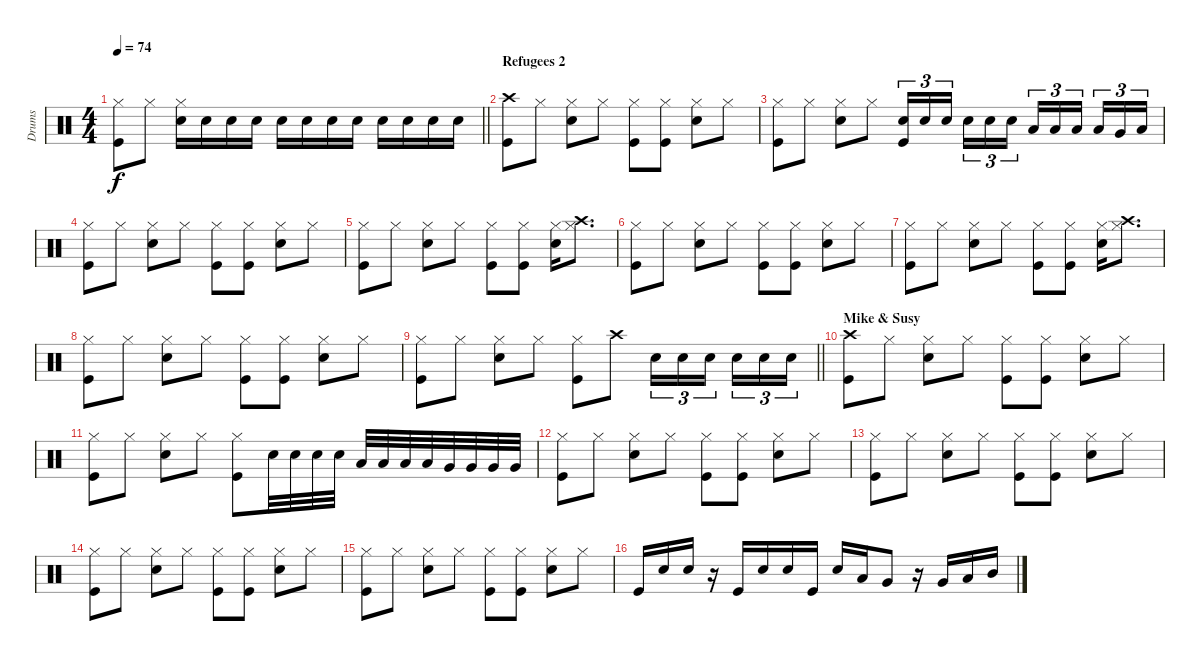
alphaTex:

\track ("Drums" "Drums") {instrument percussion}
\staff {score}
\articulation defaults
\ts (4 4)
\tempo 74
\clef neutral
\barLineRight lightlight
\ks c
("Kick (hit)" "Hi-Hat (closed)").8{dy f} "Hi-Hat (closed)".8 ("Snare (hit) 2" "Hi-Hat (closed)").16 "Snare (hit) 2".16 "Snare (hit) 2".16 "Snare (hit) 2".16 "Snare (hit) 2".16 "Snare (hit) 2".16 "Snare (hit) 2".16 "Snare (hit) 2".16 "Snare (hit) 2".16 "Snare (hit) 2".16 "Snare (hit) 2".16 "Snare (hit) 2".16 |
\section ("" "Refugees 2")
("Crash high (hit)" "Kick (hit)").8 "Hi-Hat (closed)".8 ("Snare (hit) 2" "Hi-Hat (closed)").8 "Hi-Hat (closed)".8 ("Hi-Hat (closed)" "Kick (hit)").8 ("Hi-Hat (closed)" "Kick (hit)").8 ("Hi-Hat (closed)" "Snare (hit) 2").8 "Hi-Hat (closed)".8 |
("Hi-Hat (closed)" "Kick (hit)").8 "Hi-Hat (closed)".8 ("Snare (hit) 2" "Hi-Hat (closed)").8 "Hi-Hat (closed)".8 ("Snare (hit) 2" "Kick (hit)").16{tu (3 2)} "Snare (hit) 2".16{tu (3 2)} "Snare (hit) 2".16{tu (3 2) beam splitsecondary} "Snare (hit) 2".16{tu (3 2)} "Snare (hit) 2".16{tu (3 2)} "Snare (hit) 2".16{tu (3 2)} "Low Tom (hit)".16{tu (3 2)} "Low Tom (hit)".16{tu (3 2)} "Low Tom (hit)".16{tu (3 2) beam splitsecondary} "Low Tom (hit)".16{tu (3 2)} "Very Low Tom (hit)".16{tu (3 2)} "Low Tom (hit)".16{tu (3 2)} |
("Kick (hit)" "Hi-Hat (closed)").8 "Hi-Hat (closed)".8 ("Snare (hit) 2" "Hi-Hat (closed)").8 "Hi-Hat (closed)".8 ("Kick (hit)" "Hi-Hat (closed)").8 ("Kick (hit)" "Hi-Hat (closed)").8 ("Snare (hit) 2" "Hi-Hat (closed)").8 "Hi-Hat (closed)".8 |
("Kick (hit)" "Hi-Hat (closed)").8 "Hi-Hat (closed)".8 ("Snare (hit) 2" "Hi-Hat (closed)").8 "Hi-Hat (closed)".8 ("Kick (hit)" "Hi-Hat (closed)").8 ("Kick (hit)" "Hi-Hat (closed)").8 ("Snare (hit) 2" "Hi-Hat (closed)").16 ("Hi-Hat (closed)" "Crash high (hit)").8{d} |
("Kick (hit)" "Hi-Hat (closed)").8 "Hi-Hat (closed)".8 ("Snare (hit) 2" "Hi-Hat (closed)").8 "Hi-Hat (closed)".8 ("Kick (hit)" "Hi-Hat (closed)").8 ("Kick (hit)" "Hi-Hat (closed)").8 ("Snare (hit) 2" "Hi-Hat (closed)").8 "Hi-Hat (closed)".8 |
("Kick (hit)" "Hi-Hat (closed)").8 "Hi-Hat (closed)".8 ("Snare (hit) 2" "Hi-Hat (closed)").8 "Hi-Hat (closed)".8 ("Kick (hit)" "Hi-Hat (closed)").8 ("Kick (hit)" "Hi-Hat (closed)").8 ("Snare (hit) 2" "Hi-Hat (closed)").16 ("Hi-Hat (closed)" "Crash high (hit)").8{d} |
("Kick (hit)" "Hi-Hat (closed)").8 "Hi-Hat (closed)".8 ("Snare (hit) 2" "Hi-Hat (closed)").8 "Hi-Hat (closed)".8 ("Kick (hit)" "Hi-Hat (closed)").8 ("Kick (hit)" "Hi-Hat (closed)").8 ("Snare (hit) 2" "Hi-Hat (closed)").8 "Hi-Hat (closed)".8 |
\barLineRight lightlight
("Kick (hit)" "Hi-Hat (closed)").8 "Hi-Hat (closed)".8 ("Snare (hit) 2" "Hi-Hat (closed)").8 "Hi-Hat (closed)".8 ("Kick (hit)" "Hi-Hat (closed)").8 "Crash high (hit)".8 "Snare (hit) 2".16{tu (3 2)} "Snare (hit) 2".16{tu (3 2)} "Snare (hit) 2".16{tu (3 2) beam splitsecondary} "Snare (hit) 2".16{tu (3 2)} "Snare (hit) 2".16{tu (3 2)} "Snare (hit) 2".16{tu (3 2)} |
\section ("" "Mike & Susy")
("Crash high (hit)" "Kick (hit)").8 "Hi-Hat (closed)".8 ("Snare (hit) 2" "Hi-Hat (closed)").8 "Hi-Hat (closed)".8 ("Hi-Hat (closed)" "Kick (hit)").8 ("Hi-Hat (closed)" "Kick (hit)").8 ("Hi-Hat (closed)" "Snare (hit) 2").8 "Hi-Hat (closed)".8 |
("Hi-Hat (closed)" "Kick (hit)").8 "Hi-Hat (closed)".8 ("Snare (hit) 2" "Hi-Hat (closed)").8 "Hi-Hat (closed)".8 ("Hi-Hat (closed)" "Kick (hit)").8 "Snare (hit) 2".32 "Snare (hit) 2".32 "Snare (hit) 2".32 "Snare (hit) 2".32 "Low Tom (hit)".32 "Low Tom (hit)".32 "Low Tom (hit)".32 "Low Tom (hit)".32 "Very Low Tom (hit)".32 "Very Low Tom (hit)".32 "Very Low Tom (hit)".32 "Very Low Tom (hit)".32 |
("Kick (hit)" "Hi-Hat (closed)").8 "Hi-Hat (closed)".8 ("Snare (hit) 2" "Hi-Hat (closed)").8 "Hi-Hat (closed)".8 ("Kick (hit)" "Hi-Hat (closed)").8 ("Kick (hit)" "Hi-Hat (closed)").8 ("Snare (hit) 2" "Hi-Hat (closed)").8 "Hi-Hat (closed)".8 |
("Kick (hit)" "Hi-Hat (closed)").8 "Hi-Hat (closed)".8 ("Snare (hit) 2" "Hi-Hat (closed)").8 "Hi-Hat (closed)".8 ("Kick (hit)" "Hi-Hat (closed)").8 ("Kick (hit)" "Hi-Hat (closed)").8 ("Snare (hit) 2" "Hi-Hat (closed)").8 "Hi-Hat (closed)".8 |
("Kick (hit)" "Hi-Hat (closed)").8 "Hi-Hat (closed)".8 ("Snare (hit) 2" "Hi-Hat (closed)").8 "Hi-Hat (closed)".8 ("Kick (hit)" "Hi-Hat (closed)").8 ("Kick (hit)" "Hi-Hat (closed)").8 ("Snare (hit) 2" "Hi-Hat (closed)").8 "Hi-Hat (closed)".8 |
("Kick (hit)" "Hi-Hat (closed)").8 "Hi-Hat (closed)".8 ("Snare (hit) 2" "Hi-Hat (closed)").8 "Hi-Hat (closed)".8 ("Kick (hit)" "Hi-Hat (closed)").8 ("Kick (hit)" "Hi-Hat (closed)").8 ("Snare (hit) 2" "Hi-Hat (closed)").8 "Hi-Hat (closed)".8 |
"Kick (hit)".16 "Snare (hit) 2".16 "Snare (hit) 2".16 r.16 "Kick (hit)".16 "Snare (hit) 2".16 "Snare (hit) 2".16 "Kick (hit)".16 "Snare (hit) 2".16 "Low Tom (hit)".16 "Very Low Tom (hit)".8 r.16 "Very Low Tom (hit)".16 "Low Tom (hit)".16 "Mid Tom (hit)".16
